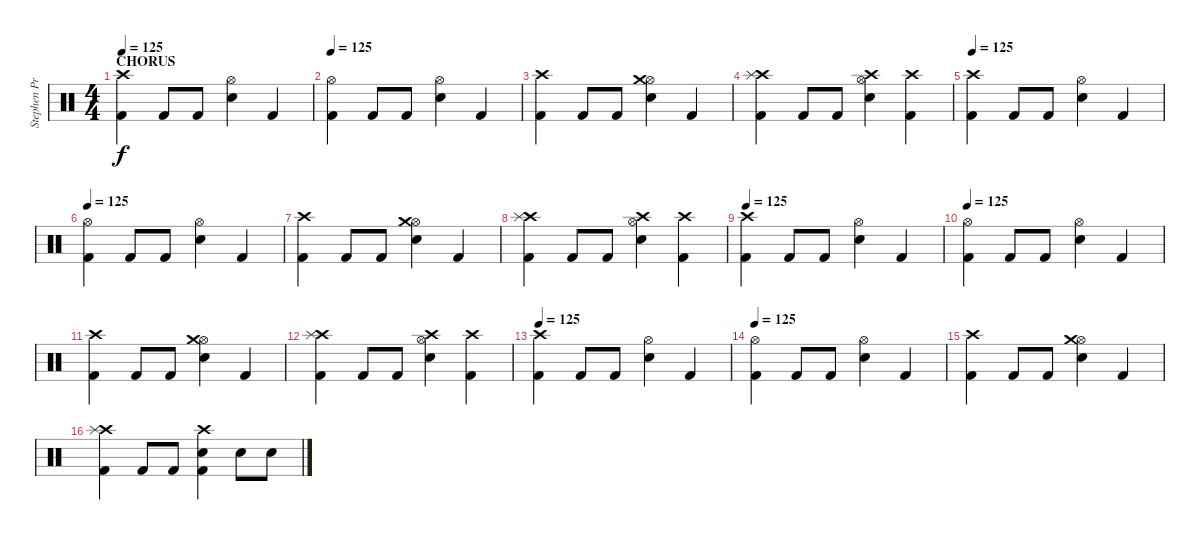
\track ("Stephen Priestly" "Stephen Pr") {instrument percussion}
\staff {score}
\articulation defaults
\ts (4 4)
\section ("" "CHORUS")
\tempo 125
\clef neutral
\ks c
("Crash high (hit)" "Kick (hit) 2").4{dy f} "Kick (hit) 2".8 "Kick (hit) 2".8 ("Hi-Hat (open)" "Snare (hit) 2").4 "Kick (hit) 2".4 |
\tempo 125
("Hi-Hat (open)" "Kick (hit) 2").4 "Kick (hit) 2".8 "Kick (hit) 2".8 ("Hi-Hat (open)" "Snare (hit) 2").4 "Kick (hit) 2".4 |
("Crash high (hit)" "Kick (hit) 2").4 "Kick (hit) 2".8 "Kick (hit) 2".8 ("Hi-Hat (open)" "Crash medium (hit)" "Snare (hit) 2").4 "Kick (hit) 2".4 |
("Crash high (hit)" "Splash (hit)" "Kick (hit) 2").4 "Kick (hit) 2".8 "Kick (hit) 2".8 ("Hi-Hat (open)" "Crash high (hit)" "Snare (hit) 2").4 ("Crash high (hit)" "Kick (hit) 2").4 |
\tempo 125
("Crash high (hit)" "Kick (hit) 2").4 "Kick (hit) 2".8 "Kick (hit) 2".8 ("Hi-Hat (open)" "Snare (hit) 2").4 "Kick (hit) 2".4 |
\tempo 125
("Hi-Hat (open)" "Kick (hit) 2").4 "Kick (hit) 2".8 "Kick (hit) 2".8 ("Hi-Hat (open)" "Snare (hit) 2").4 "Kick (hit) 2".4 |
("Crash high (hit)" "Kick (hit) 2").4 "Kick (hit) 2".8 "Kick (hit) 2".8 ("Hi-Hat (open)" "Crash medium (hit)" "Snare (hit) 2").4 "Kick (hit) 2".4 |
("Crash high (hit)" "Splash (hit)" "Kick (hit) 2").4 "Kick (hit) 2".8 "Kick (hit) 2".8 ("Hi-Hat (open)" "Crash high (hit)" "Snare (hit) 2").4 ("Crash high (hit)" "Kick (hit) 2").4 |
\tempo 125
("Crash high (hit)" "Kick (hit) 2").4 "Kick (hit) 2".8 "Kick (hit) 2".8 ("Hi-Hat (open)" "Snare (hit) 2").4 "Kick (hit) 2".4 |
\tempo 125
("Hi-Hat (open)" "Kick (hit) 2").4 "Kick (hit) 2".8 "Kick (hit) 2".8 ("Hi-Hat (open)" "Snare (hit) 2").4 "Kick (hit) 2".4 |
("Crash high (hit)" "Kick (hit) 2").4 "Kick (hit) 2".8 "Kick (hit) 2".8 ("Hi-Hat (open)" "Crash medium (hit)" "Snare (hit) 2").4 "Kick (hit) 2".4 |
("Crash high (hit)" "Splash (hit)" "Kick (hit) 2").4 "Kick (hit) 2".8 "Kick (hit) 2".8 ("Hi-Hat (open)" "Crash high (hit)" "Snare (hit) 2").4 ("Crash high (hit)" "Kick (hit) 2").4 |
\tempo 125
("Crash high (hit)" "Kick (hit) 2").4 "Kick (hit) 2".8 "Kick (hit) 2".8 ("Hi-Hat (open)" "Snare (hit) 2").4 "Kick (hit) 2".4 |
\tempo 125
("Hi-Hat (open)" "Kick (hit) 2").4 "Kick (hit) 2".8 "Kick (hit) 2".8 ("Hi-Hat (open)" "Snare (hit) 2").4 "Kick (hit) 2".4 |
("Crash high (hit)" "Kick (hit) 2").4 "Kick (hit) 2".8 "Kick (hit) 2".8 ("Hi-Hat (open)" "Crash medium (hit)" "Snare (hit) 2").4 "Kick (hit) 2".4 |
("Crash high (hit)" "Splash (hit)" "Kick (hit) 2").4 "Kick (hit) 2".8 "Kick (hit) 2".8 ("Crash high (hit)" "Snare (hit) 2" "Kick (hit) 2").4 "Snare (hit) 2".8 "Snare (hit) 2".8
